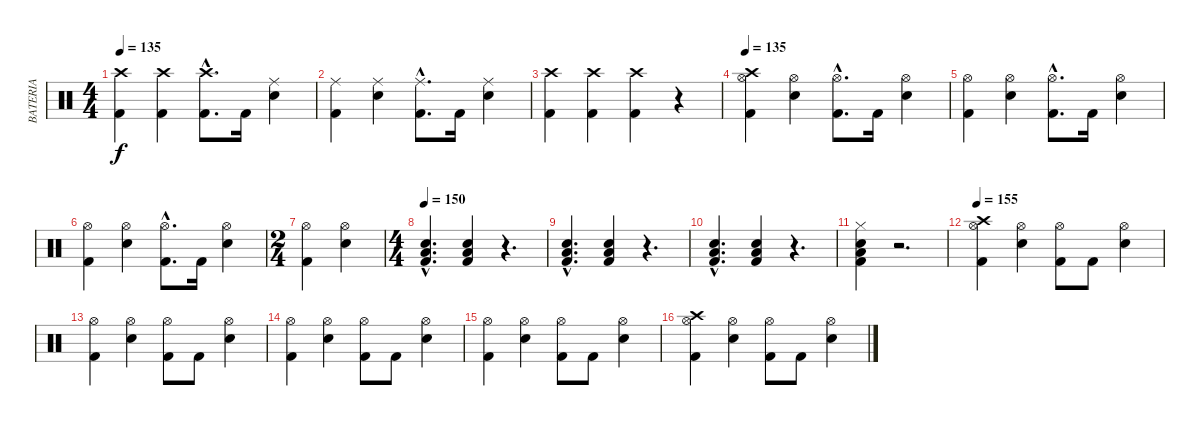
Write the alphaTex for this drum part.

\track ("BATERIA" "BATERIA") {instrument percussion}
\staff {score}
\articulation defaults
\ts (4 4)
\tempo 135
\clef neutral
\ks c
("Crash high (hit)" "Kick (hit) 2").4{dy f} ("Crash high (hit)" "Kick (hit) 2").4 ("Crash high (hit)"{hac} "Kick (hit) 2"{hac}).8{d} "Kick (hit) 2".16 ("Ride (middle)" "Snare (hit) 2").4 |
("Ride (middle)" "Kick (hit) 2").4 ("Ride (middle)" "Snare (hit) 2").4 ("Ride (middle)"{hac} "Kick (hit) 2"{hac}).8{d} "Kick (hit) 2".16 ("Ride (middle)" "Snare (hit) 2").4 |
("Crash high (hit)" "Kick (hit) 2").4 ("Crash high (hit)" "Kick (hit) 2").4 ("Crash high (hit)" "Kick (hit) 2").4 r.4 |
\tempo 135
("Crash high (hit)" "Hi-Hat (open)" "Kick (hit) 2").4 ("Hi-Hat (open)" "Snare (hit) 2").4 ("Hi-Hat (open)"{hac} "Kick (hit) 2"{hac}).8{d} "Kick (hit) 2".16 ("Hi-Hat (open)" "Snare (hit) 2").4 |
("Hi-Hat (open)" "Kick (hit) 2").4 ("Hi-Hat (open)" "Snare (hit) 2").4 ("Hi-Hat (open)"{hac} "Kick (hit) 2"{hac}).8{d} "Kick (hit) 2".16 ("Hi-Hat (open)" "Snare (hit) 2").4 |
("Hi-Hat (open)" "Kick (hit) 2").4 ("Hi-Hat (open)" "Snare (hit) 2").4 ("Hi-Hat (open)"{hac} "Kick (hit) 2"{hac}).8{d} "Kick (hit) 2".16 ("Hi-Hat (open)" "Snare (hit) 2").4 |
\ts (2 4)
("Hi-Hat (open)" "Kick (hit) 2").4 ("Hi-Hat (open)" "Snare (hit) 2").4 |
\ts (4 4)
\tempo 150
("Snare (hit) 2"{hac} "Low Floor Tom (hit)"{hac} "Kick (hit) 2"{hac}).4{d} ("Snare (hit) 2" "Low Floor Tom (hit)" "Kick (hit) 2").4 r.4{d} |
("Snare (hit) 2"{hac} "Low Floor Tom (hit)"{hac} "Kick (hit) 2"{hac}).4{d} ("Snare (hit) 2" "Low Floor Tom (hit)" "Kick (hit) 2").4 r.4{d} |
("Snare (hit) 2"{hac} "Low Floor Tom (hit)"{hac} "Kick (hit) 2"{hac}).4{d} ("Snare (hit) 2" "Low Floor Tom (hit)" "Kick (hit) 2").4 r.4{d} |
("Hi-Hat (closed)" "Snare (hit) 2" "Low Floor Tom (hit)" "Kick (hit) 2").4 r.2{d} |
\tempo 155
("Crash high (hit)" "Hi-Hat (open)" "Kick (hit) 2").4 ("Hi-Hat (open)" "Snare (hit) 2").4 ("Hi-Hat (open)" "Kick (hit) 2").8 "Kick (hit) 2".8 ("Hi-Hat (open)" "Snare (hit) 2").4 |
("Hi-Hat (open)" "Kick (hit) 2").4 ("Hi-Hat (open)" "Snare (hit) 2").4 ("Hi-Hat (open)" "Kick (hit) 2").8 "Kick (hit) 2".8 ("Hi-Hat (open)" "Snare (hit) 2").4 |
("Hi-Hat (open)" "Kick (hit) 2").4 ("Hi-Hat (open)" "Snare (hit) 2").4 ("Hi-Hat (open)" "Kick (hit) 2").8 "Kick (hit) 2".8 ("Hi-Hat (open)" "Snare (hit) 2").4 |
("Hi-Hat (open)" "Kick (hit) 2").4 ("Hi-Hat (open)" "Snare (hit) 2").4 ("Hi-Hat (open)" "Kick (hit) 2").8 "Kick (hit) 2".8 ("Hi-Hat (open)" "Snare (hit) 2").4 |
("Crash high (hit)" "Hi-Hat (open)" "Kick (hit) 2").4 ("Hi-Hat (open)" "Snare (hit) 2").4 ("Hi-Hat (open)" "Kick (hit) 2").8 "Kick (hit) 2".8 ("Hi-Hat (open)" "Snare (hit) 2").4
